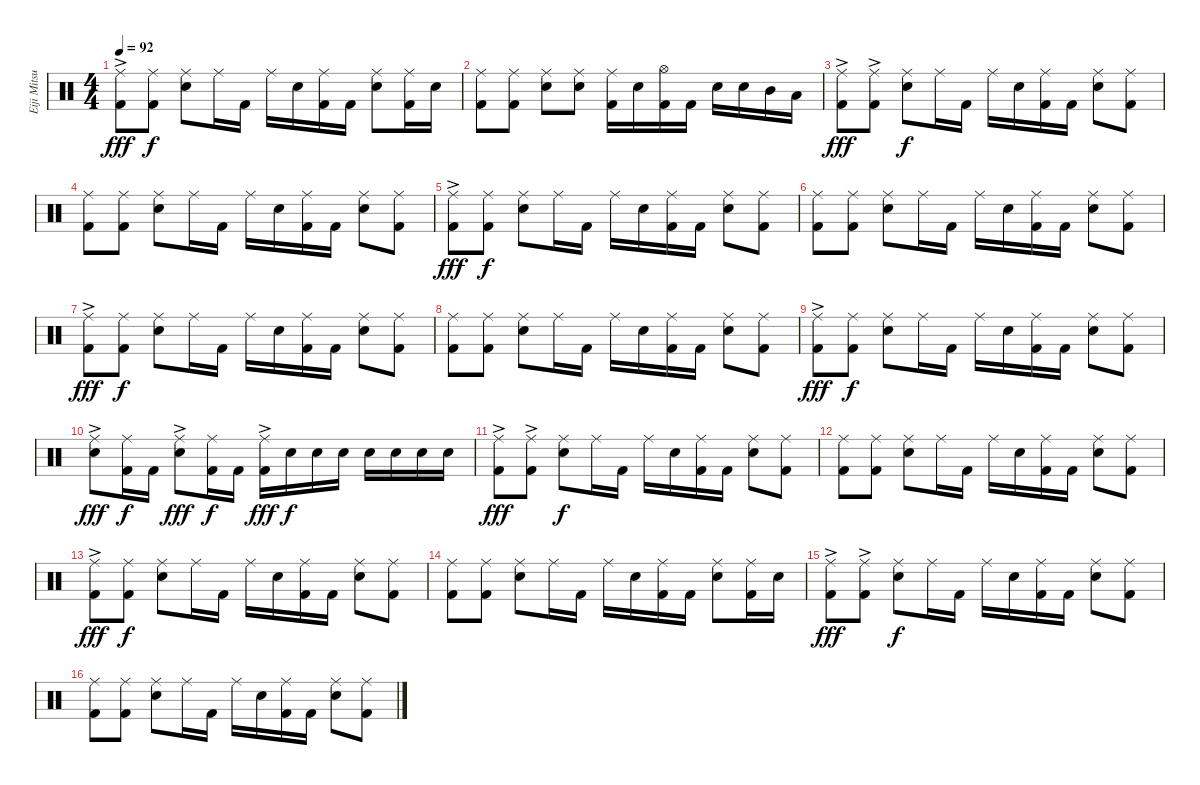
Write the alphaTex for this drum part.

\track ("Eiji Mitsuzono " "Eiji Mitsu") {instrument percussion}
\staff {score}
\articulation defaults
\ts (4 4)
\tempo 92
\clef neutral
\ks c
("Ride (middle)"{ac} "Kick (hit) 2").8{dy fff} ("Ride (middle)" "Kick (hit) 2").8{dy f} ("Ride (middle)" "Snare (hit) 2").8 "Ride (middle)".16 "Kick (hit) 2".16 "Ride (middle)".16 "Snare (hit) 2".16 ("Ride (middle)" "Kick (hit) 2").16 "Kick (hit) 2".16 ("Ride (middle)" "Snare (hit) 2").8 ("Ride (middle)" "Kick (hit) 2").16 "Snare (hit) 2".16 |
("Ride (middle)" "Kick (hit) 2").8 ("Ride (middle)" "Kick (hit) 2").8 ("Ride (middle)" "Snare (hit) 2").8 ("Ride (middle)" "Snare (hit) 2").8 ("Ride (middle)" "Kick (hit) 2").16 "Snare (hit) 2".16 ("Hi-Hat (open)" "Kick (hit) 2").16 "Kick (hit) 2".16 "Snare (hit) 2".16 "Snare (hit) 2".16 "Mid Tom (hit)".16 "Low Tom (hit)".16 |
("Ride (middle)"{ac} "Kick (hit) 2").8{dy fff} ("Ride (middle)"{ac} "Kick (hit) 2").8 ("Ride (middle)" "Snare (hit) 2").8{dy f} "Ride (middle)".16 "Kick (hit) 2".16 "Ride (middle)".16 "Snare (hit) 2".16 ("Ride (middle)" "Kick (hit) 2").16 "Kick (hit) 2".16 ("Ride (middle)" "Snare (hit) 2").8 ("Ride (middle)" "Kick (hit) 2").8 |
("Ride (middle)" "Kick (hit) 2").8 ("Ride (middle)" "Kick (hit) 2").8 ("Ride (middle)" "Snare (hit) 2").8 "Ride (middle)".16 "Kick (hit) 2".16 "Ride (middle)".16 "Snare (hit) 2".16 ("Ride (middle)" "Kick (hit) 2").16 "Kick (hit) 2".16 ("Ride (middle)" "Snare (hit) 2").8 ("Ride (middle)" "Kick (hit) 2").8 |
("Ride (middle)"{ac} "Kick (hit) 2").8{dy fff} ("Ride (middle)" "Kick (hit) 2").8{dy f} ("Ride (middle)" "Snare (hit) 2").8 "Ride (middle)".16 "Kick (hit) 2".16 "Ride (middle)".16 "Snare (hit) 2".16 ("Ride (middle)" "Kick (hit) 2").16 "Kick (hit) 2".16 ("Ride (middle)" "Snare (hit) 2").8 ("Ride (middle)" "Kick (hit) 2").8 |
("Ride (middle)" "Kick (hit) 2").8 ("Ride (middle)" "Kick (hit) 2").8 ("Ride (middle)" "Snare (hit) 2").8 "Ride (middle)".16 "Kick (hit) 2".16 "Ride (middle)".16 "Snare (hit) 2".16 ("Ride (middle)" "Kick (hit) 2").16 "Kick (hit) 2".16 ("Ride (middle)" "Snare (hit) 2").8 ("Ride (middle)" "Kick (hit) 2").8 |
("Ride (middle)"{ac} "Kick (hit) 2").8{dy fff} ("Ride (middle)" "Kick (hit) 2").8{dy f} ("Ride (middle)" "Snare (hit) 2").8 "Ride (middle)".16 "Kick (hit) 2".16 "Ride (middle)".16 "Snare (hit) 2".16 ("Ride (middle)" "Kick (hit) 2").16 "Kick (hit) 2".16 ("Ride (middle)" "Snare (hit) 2").8 ("Ride (middle)" "Kick (hit) 2").8 |
("Ride (middle)" "Kick (hit) 2").8 ("Ride (middle)" "Kick (hit) 2").8 ("Ride (middle)" "Snare (hit) 2").8 "Ride (middle)".16 "Kick (hit) 2".16 "Ride (middle)".16 "Snare (hit) 2".16 ("Ride (middle)" "Kick (hit) 2").16 "Kick (hit) 2".16 ("Ride (middle)" "Snare (hit) 2").8 ("Ride (middle)" "Kick (hit) 2").8 |
("Ride (middle)"{ac} "Kick (hit) 2").8{dy fff} ("Ride (middle)" "Kick (hit) 2").8{dy f} ("Ride (middle)" "Snare (hit) 2").8 "Ride (middle)".16 "Kick (hit) 2".16 "Ride (middle)".16 "Snare (hit) 2".16 ("Ride (middle)" "Kick (hit) 2").16 "Kick (hit) 2".16 ("Ride (middle)" "Snare (hit) 2").8 ("Ride (middle)" "Kick (hit) 2").8 |
("Ride (middle)"{ac} "Snare (hit) 2").8{dy fff} ("Ride (middle)" "Kick (hit) 2").16{dy f} "Kick (hit) 2".16 ("Ride (middle)"{ac} "Snare (hit) 2").8{dy fff} ("Ride (middle)" "Kick (hit) 2").16{dy f} "Kick (hit) 2".16 ("Ride (middle)"{ac} "Kick (hit) 2").16{dy fff} "Snare (hit) 2".16{dy f} "Snare (hit) 2".16 "Snare (hit) 2".16 "Snare (hit) 2".16 "Snare (hit) 2".16 "Snare (hit) 2".16 "Snare (hit) 2".16 |
("Ride (middle)"{ac} "Kick (hit) 2").8{dy fff} ("Ride (middle)"{ac} "Kick (hit) 2").8 ("Ride (middle)" "Snare (hit) 2").8{dy f} "Ride (middle)".16 "Kick (hit) 2".16 "Ride (middle)".16 "Snare (hit) 2".16 ("Ride (middle)" "Kick (hit) 2").16 "Kick (hit) 2".16 ("Ride (middle)" "Snare (hit) 2").8 ("Ride (middle)" "Kick (hit) 2").8 |
("Ride (middle)" "Kick (hit) 2").8 ("Ride (middle)" "Kick (hit) 2").8 ("Ride (middle)" "Snare (hit) 2").8 "Ride (middle)".16 "Kick (hit) 2".16 "Ride (middle)".16 "Snare (hit) 2".16 ("Ride (middle)" "Kick (hit) 2").16 "Kick (hit) 2".16 ("Ride (middle)" "Snare (hit) 2").8 ("Ride (middle)" "Kick (hit) 2").8 |
("Ride (middle)"{ac} "Kick (hit) 2").8{dy fff} ("Ride (middle)" "Kick (hit) 2").8{dy f} ("Ride (middle)" "Snare (hit) 2").8 "Ride (middle)".16 "Kick (hit) 2".16 "Ride (middle)".16 "Snare (hit) 2".16 ("Ride (middle)" "Kick (hit) 2").16 "Kick (hit) 2".16 ("Ride (middle)" "Snare (hit) 2").8 ("Ride (middle)" "Kick (hit) 2").8 |
("Ride (middle)" "Kick (hit) 2").8 ("Ride (middle)" "Kick (hit) 2").8 ("Ride (middle)" "Snare (hit) 2").8 "Ride (middle)".16 "Kick (hit) 2".16 "Ride (middle)".16 "Snare (hit) 2".16 ("Ride (middle)" "Kick (hit) 2").16 "Kick (hit) 2".16 ("Ride (middle)" "Snare (hit) 2").8 ("Ride (middle)" "Kick (hit) 2").16 "Snare (hit) 2".16 |
("Ride (middle)"{ac} "Kick (hit) 2").8{dy fff} ("Ride (middle)"{ac} "Kick (hit) 2").8 ("Ride (middle)" "Snare (hit) 2").8{dy f} "Ride (middle)".16 "Kick (hit) 2".16 "Ride (middle)".16 "Snare (hit) 2".16 ("Ride (middle)" "Kick (hit) 2").16 "Kick (hit) 2".16 ("Ride (middle)" "Snare (hit) 2").8 ("Ride (middle)" "Kick (hit) 2").8 |
("Ride (middle)" "Kick (hit) 2").8 ("Ride (middle)" "Kick (hit) 2").8 ("Ride (middle)" "Snare (hit) 2").8 "Ride (middle)".16 "Kick (hit) 2".16 "Ride (middle)".16 "Snare (hit) 2".16 ("Ride (middle)" "Kick (hit) 2").16 "Kick (hit) 2".16 ("Ride (middle)" "Snare (hit) 2").8 ("Ride (middle)" "Kick (hit) 2").8
